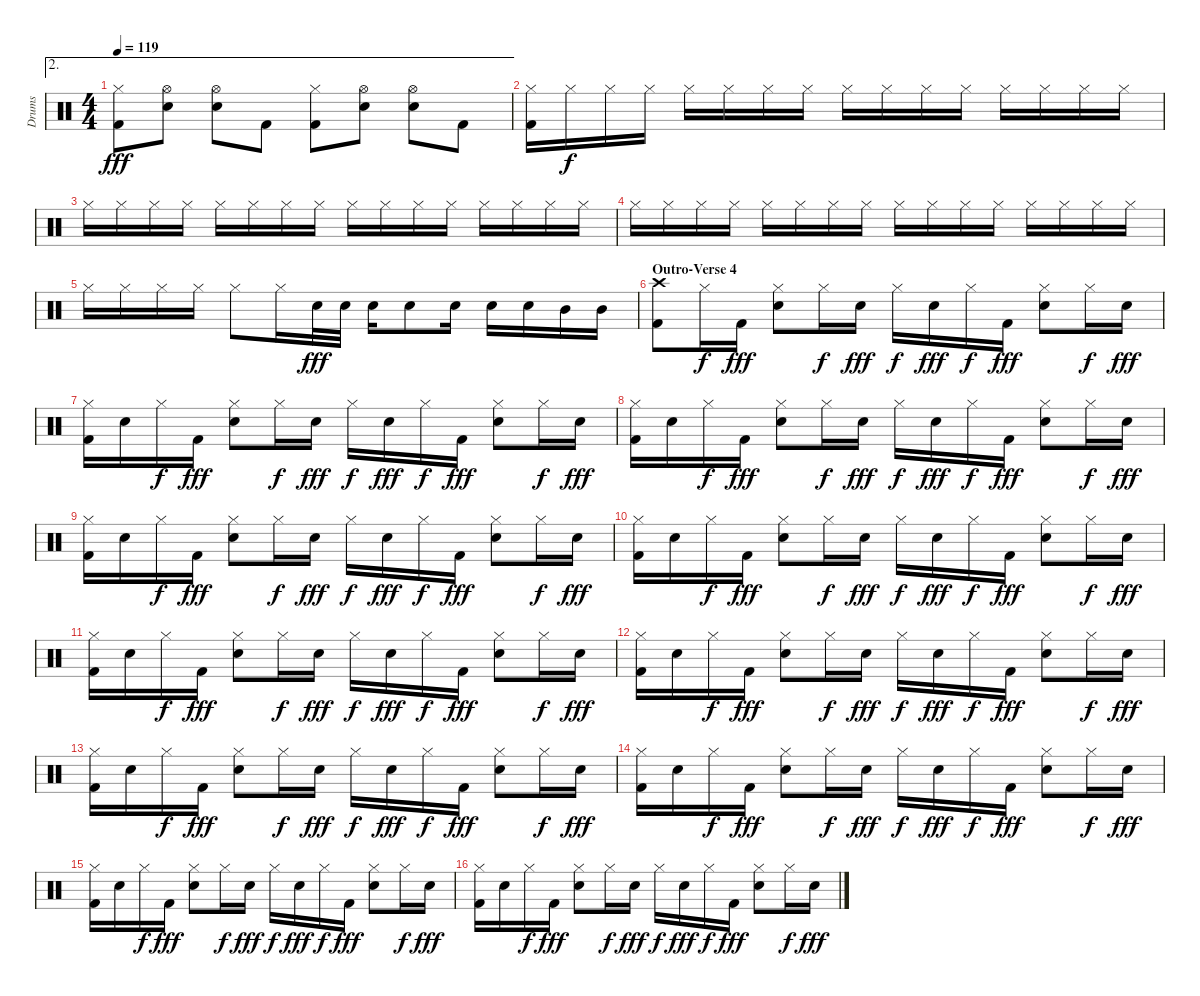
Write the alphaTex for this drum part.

\track ("Drums" "Drums") {instrument percussion}
\staff {score}
\articulation defaults
\ae 2
\ts (4 4)
\tempo 119
\clef neutral
\ks c
("Hi-Hat (closed)" "Kick (hit) 2").8{dy fff} ("Hi-Hat (open)" "Electric Snare (hit)").8 ("Hi-Hat (open)" "Electric Snare (hit)").8 "Kick (hit) 2".8 ("Hi-Hat (closed)" "Kick (hit) 2").8 ("Hi-Hat (open)" "Electric Snare (hit)").8 ("Hi-Hat (open)" "Electric Snare (hit)").8 "Kick (hit) 2".8 |
("Hi-Hat (closed)" "Kick (hit) 2").16 "Hi-Hat (closed)".16{dy f} "Hi-Hat (closed)".16 "Hi-Hat (closed)".16 "Hi-Hat (closed)".16 "Hi-Hat (closed)".16 "Hi-Hat (closed)".16 "Hi-Hat (closed)".16 "Hi-Hat (closed)".16 "Hi-Hat (closed)".16 "Hi-Hat (closed)".16 "Hi-Hat (closed)".16 "Hi-Hat (closed)".16 "Hi-Hat (closed)".16 "Hi-Hat (closed)".16 "Hi-Hat (closed)".16 |
"Hi-Hat (closed)".16 "Hi-Hat (closed)".16 "Hi-Hat (closed)".16 "Hi-Hat (closed)".16 "Hi-Hat (closed)".16 "Hi-Hat (closed)".16 "Hi-Hat (closed)".16 "Hi-Hat (closed)".16 "Hi-Hat (closed)".16 "Hi-Hat (closed)".16 "Hi-Hat (closed)".16 "Hi-Hat (closed)".16 "Hi-Hat (closed)".16 "Hi-Hat (closed)".16 "Hi-Hat (closed)".16 "Hi-Hat (closed)".16 |
"Hi-Hat (closed)".16 "Hi-Hat (closed)".16 "Hi-Hat (closed)".16 "Hi-Hat (closed)".16 "Hi-Hat (closed)".16 "Hi-Hat (closed)".16 "Hi-Hat (closed)".16 "Hi-Hat (closed)".16 "Hi-Hat (closed)".16 "Hi-Hat (closed)".16 "Hi-Hat (closed)".16 "Hi-Hat (closed)".16 "Hi-Hat (closed)".16 "Hi-Hat (closed)".16 "Hi-Hat (closed)".16 "Hi-Hat (closed)".16 |
"Hi-Hat (closed)".16 "Hi-Hat (closed)".16 "Hi-Hat (closed)".16 "Hi-Hat (closed)".16 "Hi-Hat (closed)".8 "Hi-Hat (closed)".16 "Electric Snare (hit)".32{dy fff} "Electric Snare (hit)".32 "Electric Snare (hit)".16 "Electric Snare (hit)".8 "Electric Snare (hit)".16 "Electric Snare (hit)".16 "Electric Snare (hit)".16 "Mid Tom (hit)".16 "Mid Tom (hit)".16 |
\section ("" "Outro-Verse 4")
("Crash high (hit)" "Kick (hit) 2").8 "Hi-Hat (closed)".16{dy f} "Kick (hit) 2".16{dy fff} ("Hi-Hat (closed)" "Electric Snare (hit)").8 "Hi-Hat (closed)".16{dy f} "Electric Snare (hit)".16{dy fff} "Hi-Hat (closed)".16{dy f} "Electric Snare (hit)".16{dy fff} "Hi-Hat (closed)".16{dy f} "Kick (hit) 2".16{dy fff} ("Hi-Hat (closed)" "Electric Snare (hit)").8 "Hi-Hat (closed)".16{dy f} "Electric Snare (hit)".16{dy fff} |
("Hi-Hat (closed)" "Kick (hit) 2").16 "Electric Snare (hit)".16 "Hi-Hat (closed)".16{dy f} "Kick (hit) 2".16{dy fff} ("Hi-Hat (closed)" "Electric Snare (hit)").8 "Hi-Hat (closed)".16{dy f} "Electric Snare (hit)".16{dy fff} "Hi-Hat (closed)".16{dy f} "Electric Snare (hit)".16{dy fff} "Hi-Hat (closed)".16{dy f} "Kick (hit) 2".16{dy fff} ("Hi-Hat (closed)" "Electric Snare (hit)").8 "Hi-Hat (closed)".16{dy f} "Electric Snare (hit)".16{dy fff} |
("Hi-Hat (closed)" "Kick (hit) 2").16 "Electric Snare (hit)".16 "Hi-Hat (closed)".16{dy f} "Kick (hit) 2".16{dy fff} ("Hi-Hat (closed)" "Electric Snare (hit)").8 "Hi-Hat (closed)".16{dy f} "Electric Snare (hit)".16{dy fff} "Hi-Hat (closed)".16{dy f} "Electric Snare (hit)".16{dy fff} "Hi-Hat (closed)".16{dy f} "Kick (hit) 2".16{dy fff} ("Hi-Hat (closed)" "Electric Snare (hit)").8 "Hi-Hat (closed)".16{dy f} "Electric Snare (hit)".16{dy fff} |
("Hi-Hat (closed)" "Kick (hit) 2").16 "Electric Snare (hit)".16 "Hi-Hat (closed)".16{dy f} "Kick (hit) 2".16{dy fff} ("Hi-Hat (closed)" "Electric Snare (hit)").8 "Hi-Hat (closed)".16{dy f} "Electric Snare (hit)".16{dy fff} "Hi-Hat (closed)".16{dy f} "Electric Snare (hit)".16{dy fff} "Hi-Hat (closed)".16{dy f} "Kick (hit) 2".16{dy fff} ("Hi-Hat (closed)" "Electric Snare (hit)").8 "Hi-Hat (closed)".16{dy f} "Electric Snare (hit)".16{dy fff} |
("Hi-Hat (closed)" "Kick (hit) 2").16 "Electric Snare (hit)".16 "Hi-Hat (closed)".16{dy f} "Kick (hit) 2".16{dy fff} ("Hi-Hat (closed)" "Electric Snare (hit)").8 "Hi-Hat (closed)".16{dy f} "Electric Snare (hit)".16{dy fff} "Hi-Hat (closed)".16{dy f} "Electric Snare (hit)".16{dy fff} "Hi-Hat (closed)".16{dy f} "Kick (hit) 2".16{dy fff} ("Hi-Hat (closed)" "Electric Snare (hit)").8 "Hi-Hat (closed)".16{dy f} "Electric Snare (hit)".16{dy fff} |
("Hi-Hat (closed)" "Kick (hit) 2").16 "Electric Snare (hit)".16 "Hi-Hat (closed)".16{dy f} "Kick (hit) 2".16{dy fff} ("Hi-Hat (closed)" "Electric Snare (hit)").8 "Hi-Hat (closed)".16{dy f} "Electric Snare (hit)".16{dy fff} "Hi-Hat (closed)".16{dy f} "Electric Snare (hit)".16{dy fff} "Hi-Hat (closed)".16{dy f} "Kick (hit) 2".16{dy fff} ("Hi-Hat (closed)" "Electric Snare (hit)").8 "Hi-Hat (closed)".16{dy f} "Electric Snare (hit)".16{dy fff} |
("Hi-Hat (closed)" "Kick (hit) 2").16 "Electric Snare (hit)".16 "Hi-Hat (closed)".16{dy f} "Kick (hit) 2".16{dy fff} ("Hi-Hat (closed)" "Electric Snare (hit)").8 "Hi-Hat (closed)".16{dy f} "Electric Snare (hit)".16{dy fff} "Hi-Hat (closed)".16{dy f} "Electric Snare (hit)".16{dy fff} "Hi-Hat (closed)".16{dy f} "Kick (hit) 2".16{dy fff} ("Hi-Hat (closed)" "Electric Snare (hit)").8 "Hi-Hat (closed)".16{dy f} "Electric Snare (hit)".16{dy fff} |
("Hi-Hat (closed)" "Kick (hit) 2").16 "Electric Snare (hit)".16 "Hi-Hat (closed)".16{dy f} "Kick (hit) 2".16{dy fff} ("Hi-Hat (closed)" "Electric Snare (hit)").8 "Hi-Hat (closed)".16{dy f} "Electric Snare (hit)".16{dy fff} "Hi-Hat (closed)".16{dy f} "Electric Snare (hit)".16{dy fff} "Hi-Hat (closed)".16{dy f} "Kick (hit) 2".16{dy fff} ("Hi-Hat (closed)" "Electric Snare (hit)").8 "Hi-Hat (closed)".16{dy f} "Electric Snare (hit)".16{dy fff} |
("Hi-Hat (closed)" "Kick (hit) 2").16 "Electric Snare (hit)".16 "Hi-Hat (closed)".16{dy f} "Kick (hit) 2".16{dy fff} ("Hi-Hat (closed)" "Electric Snare (hit)").8 "Hi-Hat (closed)".16{dy f} "Electric Snare (hit)".16{dy fff} "Hi-Hat (closed)".16{dy f} "Electric Snare (hit)".16{dy fff} "Hi-Hat (closed)".16{dy f} "Kick (hit) 2".16{dy fff} ("Hi-Hat (closed)" "Electric Snare (hit)").8 "Hi-Hat (closed)".16{dy f} "Electric Snare (hit)".16{dy fff} |
("Hi-Hat (closed)" "Kick (hit) 2").16 "Electric Snare (hit)".16 "Hi-Hat (closed)".16{dy f} "Kick (hit) 2".16{dy fff} ("Hi-Hat (closed)" "Electric Snare (hit)").8 "Hi-Hat (closed)".16{dy f} "Electric Snare (hit)".16{dy fff} "Hi-Hat (closed)".16{dy f} "Electric Snare (hit)".16{dy fff} "Hi-Hat (closed)".16{dy f} "Kick (hit) 2".16{dy fff} ("Hi-Hat (closed)" "Electric Snare (hit)").8 "Hi-Hat (closed)".16{dy f} "Electric Snare (hit)".16{dy fff} |
("Hi-Hat (closed)" "Kick (hit) 2").16 "Electric Snare (hit)".16 "Hi-Hat (closed)".16{dy f} "Kick (hit) 2".16{dy fff} ("Hi-Hat (closed)" "Electric Snare (hit)").8 "Hi-Hat (closed)".16{dy f} "Electric Snare (hit)".16{dy fff} "Hi-Hat (closed)".16{dy f} "Electric Snare (hit)".16{dy fff} "Hi-Hat (closed)".16{dy f} "Kick (hit) 2".16{dy fff} ("Hi-Hat (closed)" "Electric Snare (hit)").8 "Hi-Hat (closed)".16{dy f} "Electric Snare (hit)".16{dy fff}
